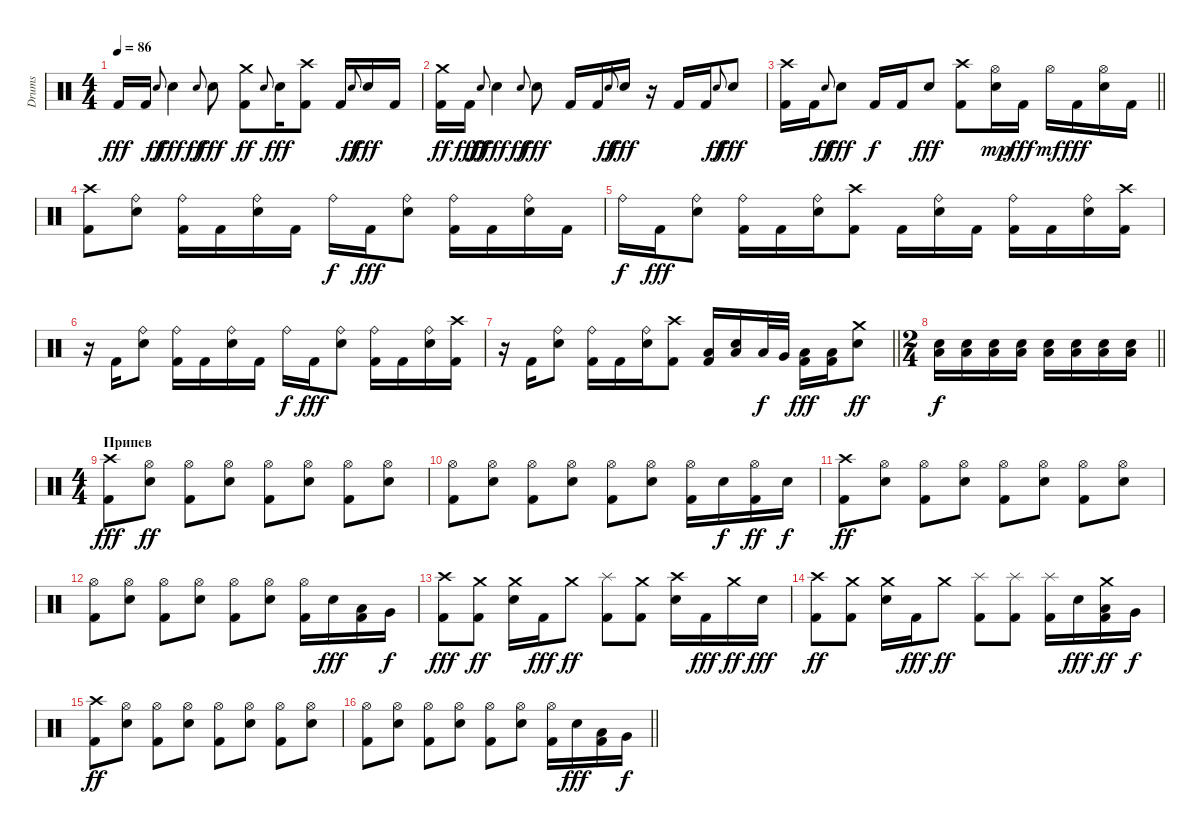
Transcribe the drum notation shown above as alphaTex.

\track ("Drums" "Drums") {instrument percussion}
\staff {score}
\articulation defaults
\ts (4 4)
\tempo 86
\clef neutral
\ks c "Kick (hit) 2".16{dy fff} "Kick (hit) 2".16 "Electric Snare (hit)".8{gr onbeat dy ff} "Electric Snare (hit)".4{dy fff} "Electric Snare (hit)".8{gr onbeat dy ff} "Electric Snare (hit)".8{dy fff}
("Kick (hit) 2" "Crash medium (hit)").8{dy ff} "Electric Snare (hit)".8{gr onbeat} "Electric Snare (hit)".16{dy fff} ("Kick (hit) 2" "Crash high (hit)").8 "Kick (hit) 2".16 "Electric Snare (hit)".8{gr onbeat dy ff} "Electric Snare (hit)".16{dy fff} "Kick (hit) 2".16 |
("Kick (hit) 2" "Crash medium (hit)").16{dy ff} "Kick (hit) 2".16{dy fff} "Electric Snare (hit)".8{gr onbeat dy ff} "Electric Snare (hit)".4{dy fff} "Electric Snare (hit)".8{gr onbeat dy ff} "Electric Snare (hit)".8{dy fff} "Kick (hit) 2".16 "Kick (hit) 2".16 "Electric Snare (hit)".8{gr onbeat dy ff} "Electric Snare (hit)".16{dy fff} r.16 "Kick (hit) 2".16 "Kick (hit) 2".16 "Electric Snare (hit)".8{gr onbeat dy ff} "Electric Snare (hit)".8{dy fff} |
\barLineRight lightlight
("Kick (hit) 2" "Crash high (hit)").16 "Kick (hit) 2".16 "Electric Snare (hit)".8{gr onbeat dy ff} "Electric Snare (hit)".8{dy fff} "Kick (hit) 2".16{dy f} "Kick (hit) 2".16 "Electric Snare (hit)".8{dy fff} ("Kick (hit) 2" "Crash high (hit)").8 ("Electric Snare (hit)" "Hi-Hat (open)").16{dy mp} "Kick (hit) 2".16{dy fff} "Hi-Hat (open)".16{dy mf} "Kick (hit) 2".16{dy fff} ("Electric Snare (hit)" "Hi-Hat (open)").16 "Kick (hit) 2".16 |
("Kick (hit) 2" "Crash high (hit)").8 ("Electric Snare (hit)" "Ride (bell)").8 ("Kick (hit) 2" "Ride (bell)").16 "Kick (hit) 2".16 ("Electric Snare (hit)" "Ride (bell)").16 "Kick (hit) 2".16 "Ride (bell)".16{dy f} "Kick (hit) 2".16{dy fff} ("Electric Snare (hit)" "Ride (bell)").8 ("Kick (hit) 2" "Ride (bell)").16 "Kick (hit) 2".16 ("Electric Snare (hit)" "Ride (bell)").16 "Kick (hit) 2".16 |
"Ride (bell)".16{dy f} "Kick (hit) 2".16{dy fff} ("Electric Snare (hit)" "Ride (bell)").8 ("Kick (hit) 2" "Ride (bell)").16 "Kick (hit) 2".16 ("Electric Snare (hit)" "Ride (bell)").16 ("Kick (hit) 2" "Crash high (hit)").8 "Kick (hit) 2".16 ("Electric Snare (hit)" "Ride (bell)").16 "Kick (hit) 2".16 ("Kick (hit) 2" "Ride (bell)").16 "Kick (hit) 2".16 ("Electric Snare (hit)" "Ride (bell)").16 ("Kick (hit) 2" "Crash high (hit)").16 |
r.16 "Kick (hit) 2".16 ("Electric Snare (hit)" "Ride (bell)").8 ("Kick (hit) 2" "Ride (bell)").16 "Kick (hit) 2".16 ("Electric Snare (hit)" "Ride (bell)").16 "Kick (hit) 2".16 "Ride (bell)".16{dy f} "Kick (hit) 2".16{dy fff} ("Electric Snare (hit)" "Ride (bell)").8 ("Kick (hit) 2" "Ride (bell)").16 "Kick (hit) 2".16 ("Electric Snare (hit)" "Ride (bell)").16 ("Kick (hit) 2" "Crash high (hit)").16 |
\barLineRight lightlight
r.16 "Kick (hit) 2".16 ("Electric Snare (hit)" "Ride (bell)").8 ("Kick (hit) 2" "Ride (bell)").16 "Kick (hit) 2".16 ("Electric Snare (hit)" "Ride (bell)").16 ("Kick (hit) 2" "Crash high (hit)").8 ("Kick (hit) 2" "Low Floor Tom (hit)").16 ("Electric Snare (hit)" "Low Floor Tom (hit)").16 "Low Floor Tom (hit)".32{dy f} "Very Low Tom (hit)".32 ("Kick (hit) 2" "Low Floor Tom (hit)").16{dy fff} ("Kick (hit) 2" "Low Floor Tom (hit)").16 ("Electric Snare (hit)" "Crash medium (hit)").8{dy ff} |
\ts (2 4)
\barLineRight lightlight
("Electric Snare (hit)" "Low Floor Tom (hit)").16{dy f volume 10} ("Electric Snare (hit)" "Low Floor Tom (hit)").16{volume 16} ("Electric Snare (hit)" "Low Floor Tom (hit)").16 ("Electric Snare (hit)" "Low Floor Tom (hit)").16 ("Electric Snare (hit)" "Low Floor Tom (hit)").16 ("Electric Snare (hit)" "Low Floor Tom (hit)").16 ("Electric Snare (hit)" "Low Floor Tom (hit)").16 ("Electric Snare (hit)" "Low Floor Tom (hit)").16 |
\ts (4 4)
\section ("" "Припев")
("Kick (hit) 2" "Crash high (hit)").8{dy fff} ("Electric Snare (hit)" "Hi-Hat (open)").8{dy ff} ("Kick (hit) 2" "Hi-Hat (open)").8 ("Electric Snare (hit)" "Hi-Hat (open)").8 ("Kick (hit) 2" "Hi-Hat (open)").8 ("Electric Snare (hit)" "Hi-Hat (open)").8 ("Kick (hit) 2" "Hi-Hat (open)").8 ("Electric Snare (hit)" "Hi-Hat (open)").8 |
("Kick (hit) 2" "Hi-Hat (open)").8 ("Electric Snare (hit)" "Hi-Hat (open)").8 ("Kick (hit) 2" "Hi-Hat (open)").8 ("Electric Snare (hit)" "Hi-Hat (open)").8 ("Kick (hit) 2" "Hi-Hat (open)").8 ("Electric Snare (hit)" "Hi-Hat (open)").8 ("Kick (hit) 2" "Hi-Hat (open)").16 "Electric Snare (hit)".16{dy f} ("Kick (hit) 2" "Hi-Hat (open)").16{dy ff} "Electric Snare (hit)".16{dy f} |
("Kick (hit) 2" "Crash high (hit)").8{dy ff} ("Electric Snare (hit)" "Hi-Hat (open)").8 ("Kick (hit) 2" "Hi-Hat (open)").8 ("Electric Snare (hit)" "Hi-Hat (open)").8 ("Kick (hit) 2" "Hi-Hat (open)").8 ("Electric Snare (hit)" "Hi-Hat (open)").8 ("Kick (hit) 2" "Hi-Hat (open)").8 ("Electric Snare (hit)" "Hi-Hat (open)").8 |
("Kick (hit) 2" "Hi-Hat (open)").8 ("Electric Snare (hit)" "Hi-Hat (open)").8 ("Kick (hit) 2" "Hi-Hat (open)").8 ("Electric Snare (hit)" "Hi-Hat (open)").8 ("Kick (hit) 2" "Hi-Hat (open)").8 ("Electric Snare (hit)" "Hi-Hat (open)").8 ("Kick (hit) 2" "Hi-Hat (open)").16 "Electric Snare (hit)".16{dy fff} ("Kick (hit) 2" "Low Floor Tom (hit)").16 "Very Low Tom (hit)".16{dy f} |
("Kick (hit) 2" "Crash high (hit)").8{dy fff} ("Kick (hit) 2" "Crash medium (hit)").8{dy ff} ("Electric Snare (hit)" "Crash medium (hit)").16 "Kick (hit) 2".16{dy fff} "Crash medium (hit)".8{dy ff} ("Kick (hit) 2" "Splash (hit)").8 ("Kick (hit) 2" "Crash medium (hit)").8 ("Electric Snare (hit)" "Crash high (hit)").16 "Kick (hit) 2".16{dy fff} "Crash medium (hit)".16{dy ff} "Electric Snare (hit)".16{dy fff} |
("Kick (hit) 2" "Crash high (hit)").8{dy ff} ("Kick (hit) 2" "Crash medium (hit)").8 ("Electric Snare (hit)" "Crash medium (hit)").16 "Kick (hit) 2".16{dy fff} "Crash medium (hit)".8{dy ff} ("Kick (hit) 2" "Splash (hit)").8 ("Kick (hit) 2" "Splash (hit)").8 ("Kick (hit) 2" "Splash (hit)").16 "Electric Snare (hit)".16{dy fff} ("Kick (hit) 2" "Low Floor Tom (hit)" "Crash medium (hit)").16{dy ff} "Very Low Tom (hit)".16{dy f} |
("Kick (hit) 2" "Crash high (hit)").8{dy ff} ("Electric Snare (hit)" "Hi-Hat (open)").8 ("Kick (hit) 2" "Hi-Hat (open)").8 ("Electric Snare (hit)" "Hi-Hat (open)").8 ("Kick (hit) 2" "Hi-Hat (open)").8 ("Electric Snare (hit)" "Hi-Hat (open)").8 ("Kick (hit) 2" "Hi-Hat (open)").8 ("Electric Snare (hit)" "Hi-Hat (open)").8 |
\barLineRight lightlight
("Kick (hit) 2" "Hi-Hat (open)").8 ("Electric Snare (hit)" "Hi-Hat (open)").8 ("Kick (hit) 2" "Hi-Hat (open)").8 ("Electric Snare (hit)" "Hi-Hat (open)").8 ("Kick (hit) 2" "Hi-Hat (open)").8 ("Electric Snare (hit)" "Hi-Hat (open)").8 ("Kick (hit) 2" "Hi-Hat (open)").16 "Electric Snare (hit)".16{dy fff} ("Kick (hit) 2" "Low Floor Tom (hit)").16 "Very Low Tom (hit)".16{dy f}
